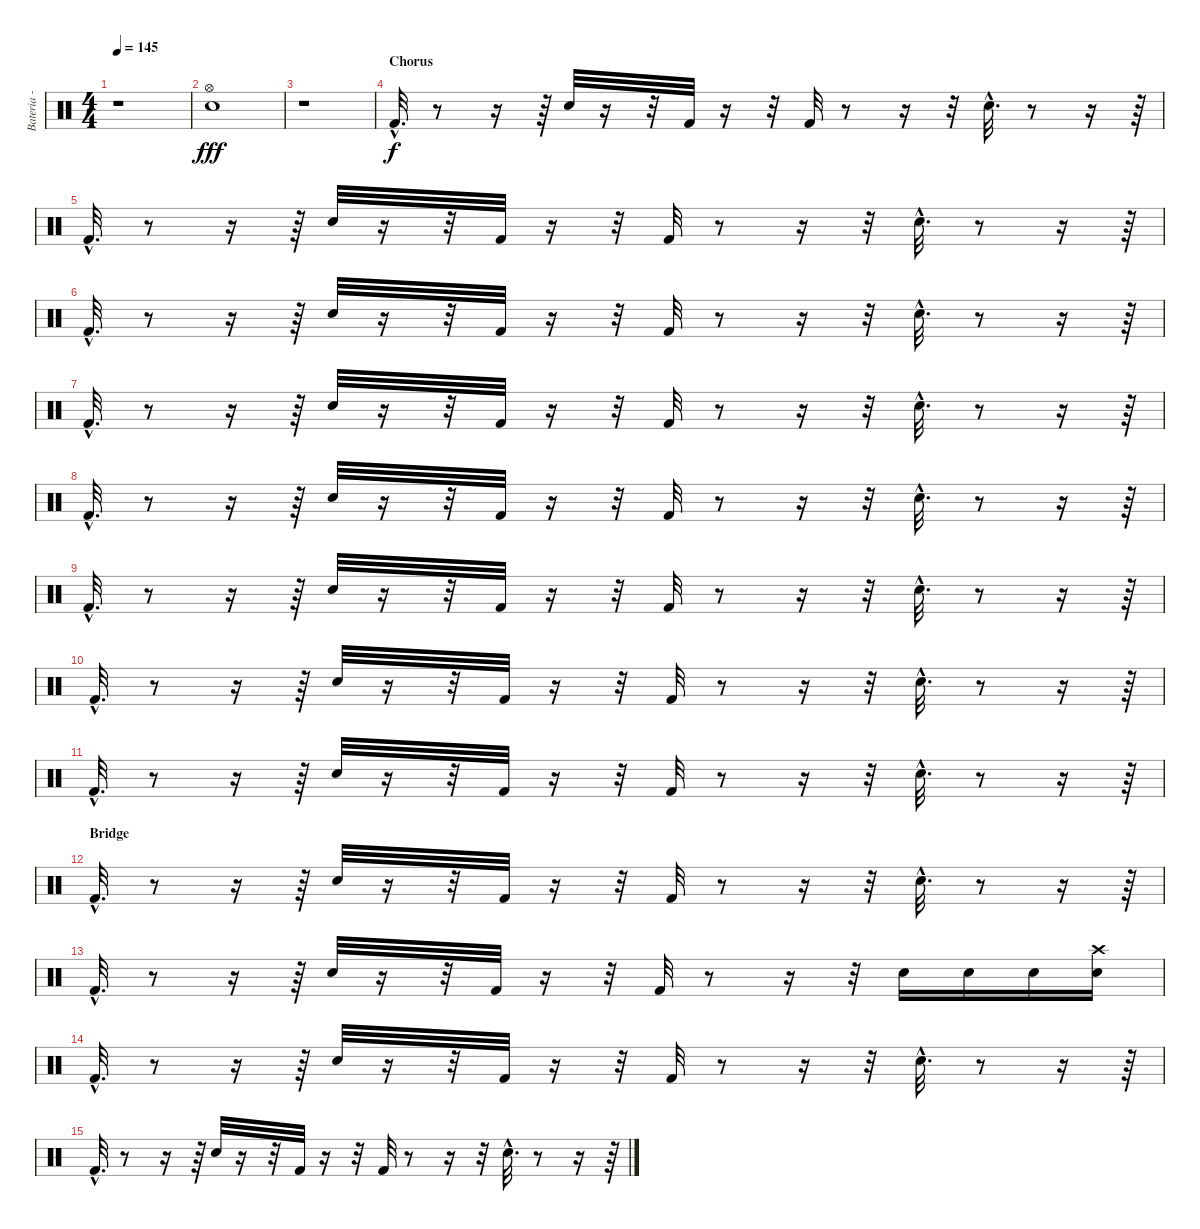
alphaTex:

\track ("Bateria - Larzon" "Bateria - ") {instrument percussion}
\staff {score}
\articulation defaults
\ts (4 4)
\tempo 145
\clef neutral
\ks c
r.1{dy fff} |
("Hi-Hat (open)" "Electric Snare (hit)").1 |
r.1 |
\section ("" "Chorus")
"Kick (hit) 2"{hac}.32{d dy f} r.8 r.16 r.64 "Snare (hit) 2".32 r.16 r.32 "Kick (hit) 2".32 r.16 r.32 "Kick (hit) 2".32 r.8 r.16 r.32 "Snare (hit) 2"{hac}.32{d} r.8 r.16 r.64 |
"Kick (hit) 2"{hac}.32{d} r.8 r.16 r.64 "Snare (hit) 2".32 r.16 r.32 "Kick (hit) 2".32 r.16 r.32 "Kick (hit) 2".32 r.8 r.16 r.32 "Snare (hit) 2"{hac}.32{d} r.8 r.16 r.64 |
"Kick (hit) 2"{hac}.32{d} r.8 r.16 r.64 "Snare (hit) 2".32 r.16 r.32 "Kick (hit) 2".32 r.16 r.32 "Kick (hit) 2".32 r.8 r.16 r.32 "Snare (hit) 2"{hac}.32{d} r.8 r.16 r.64 |
"Kick (hit) 2"{hac}.32{d} r.8 r.16 r.64 "Snare (hit) 2".32 r.16 r.32 "Kick (hit) 2".32 r.16 r.32 "Kick (hit) 2".32 r.8 r.16 r.32 "Snare (hit) 2"{hac}.32{d} r.8 r.16 r.64 |
"Kick (hit) 2"{hac}.32{d} r.8 r.16 r.64 "Snare (hit) 2".32 r.16 r.32 "Kick (hit) 2".32 r.16 r.32 "Kick (hit) 2".32 r.8 r.16 r.32 "Snare (hit) 2"{hac}.32{d} r.8 r.16 r.64 |
"Kick (hit) 2"{hac}.32{d} r.8 r.16 r.64 "Snare (hit) 2".32 r.16 r.32 "Kick (hit) 2".32 r.16 r.32 "Kick (hit) 2".32 r.8 r.16 r.32 "Snare (hit) 2"{hac}.32{d} r.8 r.16 r.64 |
"Kick (hit) 2"{hac}.32{d} r.8 r.16 r.64 "Snare (hit) 2".32 r.16 r.32 "Kick (hit) 2".32 r.16 r.32 "Kick (hit) 2".32 r.8 r.16 r.32 "Snare (hit) 2"{hac}.32{d} r.8 r.16 r.64 |
"Kick (hit) 2"{hac}.32{d} r.8 r.16 r.64 "Snare (hit) 2".32 r.16 r.32 "Kick (hit) 2".32 r.16 r.32 "Kick (hit) 2".32 r.8 r.16 r.32 "Snare (hit) 2"{hac}.32{d} r.8 r.16 r.64 |
\section ("" "Bridge")
"Kick (hit) 2"{hac}.32{d} r.8 r.16 r.64 "Snare (hit) 2".32 r.16 r.32 "Kick (hit) 2".32 r.16 r.32 "Kick (hit) 2".32 r.8 r.16 r.32 "Snare (hit) 2"{hac}.32{d} r.8 r.16 r.64 |
"Kick (hit) 2"{hac}.32{d} r.8 r.16 r.64 "Snare (hit) 2".32 r.16 r.32 "Kick (hit) 2".32 r.16 r.32 "Kick (hit) 2".32 r.8 r.16 r.32 "Snare (hit) 2".16 "Snare (hit) 2".16 "Snare (hit) 2".16 ("Snare (hit) 2" "Crash high (hit)").16 |
"Kick (hit) 2"{hac}.32{d} r.8 r.16 r.64 "Snare (hit) 2".32 r.16 r.32 "Kick (hit) 2".32 r.16 r.32 "Kick (hit) 2".32 r.8 r.16 r.32 "Snare (hit) 2"{hac}.32{d} r.8 r.16 r.64 |
"Kick (hit) 2"{hac}.32{d} r.8 r.16 r.64 "Snare (hit) 2".32 r.16 r.32 "Kick (hit) 2".32 r.16 r.32 "Kick (hit) 2".32 r.8 r.16 r.32 "Snare (hit) 2"{hac}.32{d} r.8 r.16 r.64
